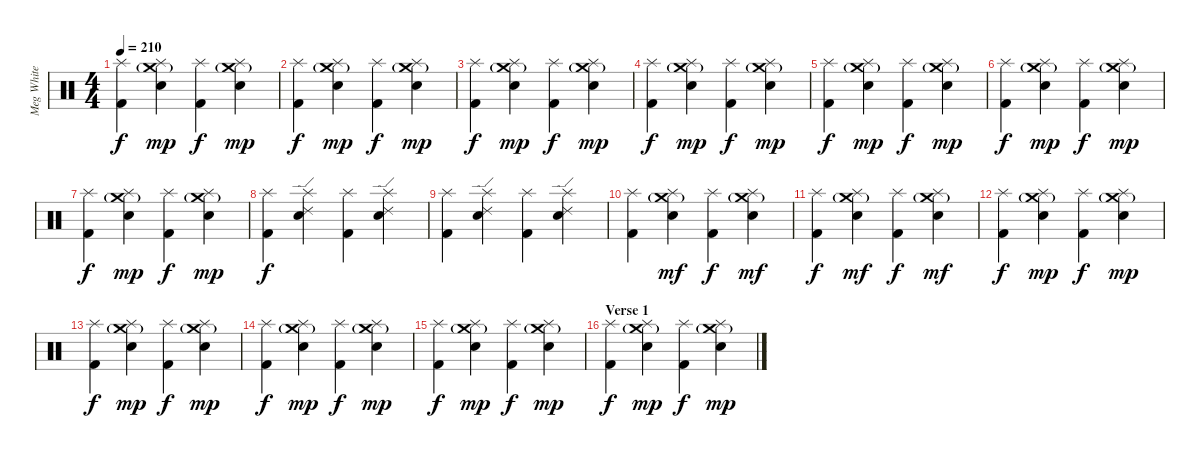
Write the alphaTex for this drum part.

\track ("Meg White (Drums)" "Meg White ") {instrument percussion}
\staff {score}
\articulation defaults
\ts (4 4)
\tempo 210
\clef neutral
\ks c
("Kick (hit) 2" "Splash (hit)").4{dy f} ("Electric Snare (hit)" "Splash (hit)" "Crash medium (hit)"{g}).4{dy mp} ("Kick (hit) 2" "Splash (hit)").4{dy f} ("Electric Snare (hit)" "Splash (hit)" "Crash medium (hit)"{g}).4{dy mp} |
("Kick (hit) 2" "Splash (hit)").4{dy f} ("Electric Snare (hit)" "Splash (hit)" "Crash medium (hit)"{g}).4{dy mp} ("Kick (hit) 2" "Splash (hit)").4{dy f} ("Electric Snare (hit)" "Splash (hit)" "Crash medium (hit)"{g}).4{dy mp} |
("Kick (hit) 2" "Splash (hit)").4{dy f} ("Electric Snare (hit)" "Splash (hit)" "Crash medium (hit)"{g}).4{dy mp} ("Kick (hit) 2" "Splash (hit)").4{dy f} ("Electric Snare (hit)" "Splash (hit)" "Crash medium (hit)"{g}).4{dy mp} |
("Kick (hit) 2" "Splash (hit)").4{dy f} ("Electric Snare (hit)" "Splash (hit)" "Crash medium (hit)"{g}).4{dy mp} ("Kick (hit) 2" "Splash (hit)").4{dy f} ("Electric Snare (hit)" "Splash (hit)" "Crash medium (hit)"{g}).4{dy mp} |
("Kick (hit) 2" "Splash (hit)").4{dy f} ("Electric Snare (hit)" "Splash (hit)" "Crash medium (hit)"{g}).4{dy mp} ("Kick (hit) 2" "Splash (hit)").4{dy f} ("Electric Snare (hit)" "Splash (hit)" "Crash medium (hit)"{g}).4{dy mp} |
("Kick (hit) 2" "Splash (hit)").4{dy f} ("Electric Snare (hit)" "Splash (hit)" "Crash medium (hit)"{g}).4{dy mp} ("Kick (hit) 2" "Splash (hit)").4{dy f} ("Electric Snare (hit)" "Splash (hit)" "Crash medium (hit)"{g}).4{dy mp} |
("Kick (hit) 2" "Splash (hit)").4{dy f} ("Electric Snare (hit)" "Splash (hit)" "Crash medium (hit)"{g}).4{dy mp} ("Kick (hit) 2" "Splash (hit)").4{dy f} ("Electric Snare (hit)" "Splash (hit)" "Crash medium (hit)"{g}).4{dy mp} |
("Kick (hit) 2" "Splash (hit)").4{dy f} ("Electric Snare (hit)" "Splash (hit)" "Ride (edge) 2").4 ("Kick (hit) 2" "Splash (hit)").4 ("Electric Snare (hit)" "Splash (hit)" "Ride (edge) 2").4 |
("Kick (hit) 2" "Splash (hit)").4 ("Electric Snare (hit)" "Splash (hit)" "Ride (edge) 2").4 ("Kick (hit) 2" "Splash (hit)").4 ("Electric Snare (hit)" "Splash (hit)" "Ride (edge) 2").4 |
("Kick (hit) 2" "Splash (hit)").4 ("Electric Snare (hit)" "Splash (hit)" "Crash medium (hit)"{g}).4{dy mf} ("Kick (hit) 2" "Splash (hit)").4{dy f} ("Electric Snare (hit)" "Splash (hit)" "Crash medium (hit)"{g}).4{dy mf} |
("Kick (hit) 2" "Splash (hit)").4{dy f} ("Electric Snare (hit)" "Splash (hit)" "Crash medium (hit)"{g}).4{dy mf} ("Kick (hit) 2" "Splash (hit)").4{dy f} ("Electric Snare (hit)" "Splash (hit)" "Crash medium (hit)"{g}).4{dy mf} |
("Kick (hit) 2" "Splash (hit)").4{dy f} ("Electric Snare (hit)" "Splash (hit)" "Crash medium (hit)"{g}).4{dy mp} ("Kick (hit) 2" "Splash (hit)").4{dy f} ("Electric Snare (hit)" "Splash (hit)" "Crash medium (hit)"{g}).4{dy mp} |
("Kick (hit) 2" "Splash (hit)").4{dy f} ("Electric Snare (hit)" "Splash (hit)" "Crash medium (hit)"{g}).4{dy mp} ("Kick (hit) 2" "Splash (hit)").4{dy f} ("Electric Snare (hit)" "Splash (hit)" "Crash medium (hit)"{g}).4{dy mp} |
("Kick (hit) 2" "Splash (hit)").4{dy f} ("Electric Snare (hit)" "Splash (hit)" "Crash medium (hit)"{g}).4{dy mp} ("Kick (hit) 2" "Splash (hit)").4{dy f} ("Electric Snare (hit)" "Splash (hit)" "Crash medium (hit)"{g}).4{dy mp} |
("Kick (hit) 2" "Splash (hit)").4{dy f} ("Electric Snare (hit)" "Splash (hit)" "Crash medium (hit)"{g}).4{dy mp} ("Kick (hit) 2" "Splash (hit)").4{dy f} ("Electric Snare (hit)" "Splash (hit)" "Crash medium (hit)"{g}).4{dy mp} |
\section ("" "Verse 1 ")
("Kick (hit) 2" "Splash (hit)").4{dy f} ("Electric Snare (hit)" "Splash (hit)" "Crash medium (hit)"{g}).4{dy mp} ("Kick (hit) 2" "Splash (hit)").4{dy f} ("Electric Snare (hit)" "Splash (hit)" "Crash medium (hit)"{g}).4{dy mp}
